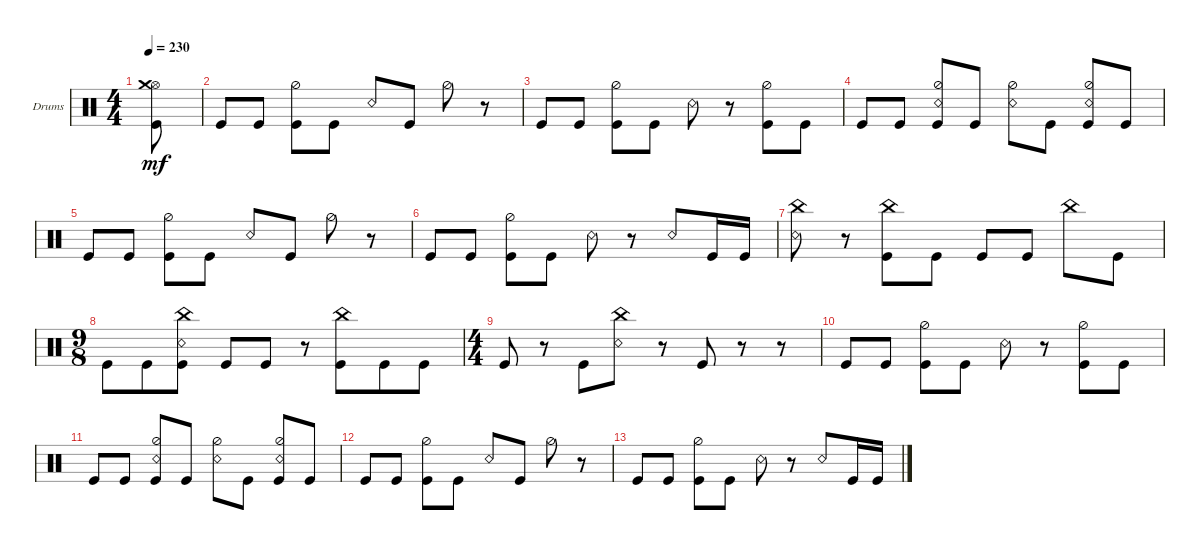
\bracketExtendMode groupsimilarinstruments
\firstSystemTrackNameOrientation horizontal
\otherSystemsTrackNameOrientation horizontal
\track ("Drumkit" "Drums") {instrument percussion}
\staff {score}
\articulation defaults
\ts (4 4)
\tempo 230
\clef neutral
\ks c
("Kick (hit)" "Hi-Hat (open)" "Crash medium (hit)").8{dy mf} |
"Kick (hit)".8 "Kick (hit)".8 ("Kick (hit)" "Hi-Hat (half)").8 "Kick (hit)".8 "Snare (rim shot)".8 "Kick (hit)".8 "Hi-Hat (half)".8 r.8 |
"Kick (hit)".8 "Kick (hit)".8 ("Kick (hit)" "Hi-Hat (half)").8 "Kick (hit)".8 "Snare (rim shot)".8 r.8 ("Kick (hit)" "Hi-Hat (half)").8 "Kick (hit)".8 |
"Kick (hit)".8 "Kick (hit)".8 ("Kick (hit)" "Snare (rim shot)" "Hi-Hat (half)").8 "Kick (hit)".8 ("Snare (rim shot)" "Hi-Hat (half)").8 "Kick (hit)".8 ("Kick (hit)" "Snare (rim shot)" "Hi-Hat (half)").8 "Kick (hit)".8 |
"Kick (hit)".8 "Kick (hit)".8 ("Kick (hit)" "Hi-Hat (half)").8 "Kick (hit)".8 "Snare (rim shot)".8 "Kick (hit)".8 "Hi-Hat (half)".8 r.8 |
"Kick (hit)".8 "Kick (hit)".8 ("Kick (hit)" "Hi-Hat (half)").8 "Kick (hit)".8 "Snare (rim shot)".8 r.8 "Snare (rim shot)".8 "Kick (hit)".16 "Kick (hit)".16 |
("China (hit)" "Snare (rim shot)").8 r.8 ("Kick (hit)" "China (hit)").8 "Kick (hit)".8 "Kick (hit)".8 "Kick (hit)".8 "China (hit)".8 "Kick (hit)".8 |
\ts (9 8)
"Kick (hit)".8 "Kick (hit)".8 ("Kick (hit)" "Snare (rim shot)" "China (hit)").8 "Kick (hit)".8 "Kick (hit)".8 r.8 ("Kick (hit)" "China (hit)").8 "Kick (hit)".8 "Kick (hit)".8 |
\ts (4 4)
"Kick (hit)".8 r.8 "Kick (hit)".8 ("China (hit)" "Snare (rim shot)").8 r.8 "Kick (hit)".8 r.8 r.8 |
"Kick (hit)".8 "Kick (hit)".8 ("Kick (hit)" "Hi-Hat (half)").8 "Kick (hit)".8 "Snare (rim shot)".8 r.8 ("Kick (hit)" "Hi-Hat (half)").8 "Kick (hit)".8 |
"Kick (hit)".8 "Kick (hit)".8 ("Kick (hit)" "Snare (rim shot)" "Hi-Hat (half)").8 "Kick (hit)".8 ("Snare (rim shot)" "Hi-Hat (half)").8 "Kick (hit)".8 ("Kick (hit)" "Snare (rim shot)" "Hi-Hat (half)").8 "Kick (hit)".8 |
"Kick (hit)".8 "Kick (hit)".8 ("Kick (hit)" "Hi-Hat (half)").8 "Kick (hit)".8 "Snare (rim shot)".8 "Kick (hit)".8 "Hi-Hat (half)".8 r.8 |
"Kick (hit)".8 "Kick (hit)".8 ("Kick (hit)" "Hi-Hat (half)").8 "Kick (hit)".8 "Snare (rim shot)".8 r.8 "Snare (rim shot)".8 "Kick (hit)".16 "Kick (hit)".16
